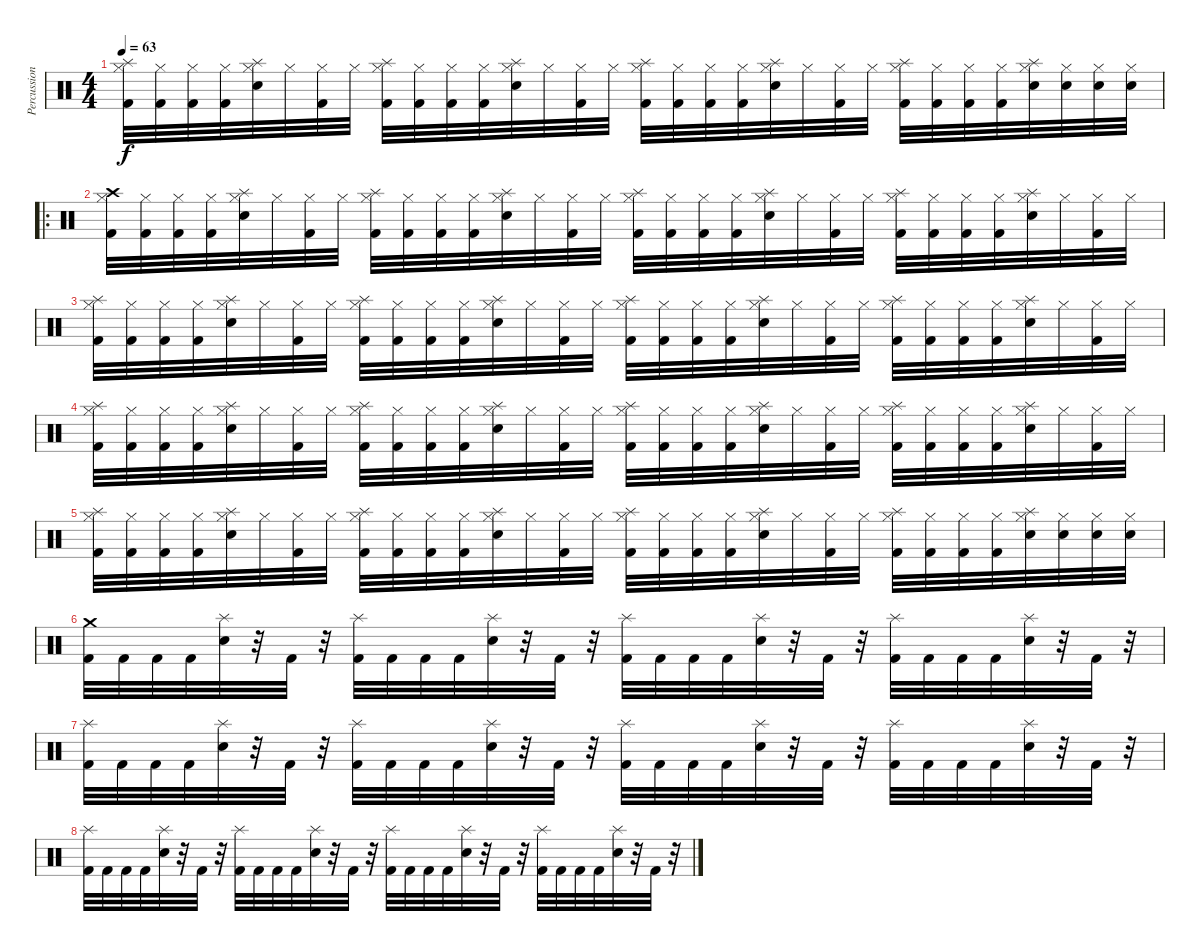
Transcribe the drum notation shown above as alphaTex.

\track ("Percussion" "Percussion") {instrument percussion}
\staff {score}
\articulation defaults
\ts (4 4)
\tempo 63
\clef neutral
\ks c
("Splash (hit)" "Hi-Hat (closed)" "Kick (hit) 2").32{dy f} ("Hi-Hat (closed)" "Kick (hit) 2").32 ("Hi-Hat (closed)" "Kick (hit) 2").32 ("Hi-Hat (closed)" "Kick (hit) 2").32 ("Splash (hit)" "Hi-Hat (closed)" "Electric Snare (hit)").32 "Hi-Hat (closed)".32 ("Hi-Hat (closed)" "Kick (hit) 2").32 "Hi-Hat (closed)".32 ("Splash (hit)" "Hi-Hat (closed)" "Kick (hit) 2").32 ("Hi-Hat (closed)" "Kick (hit) 2").32 ("Hi-Hat (closed)" "Kick (hit) 2").32 ("Hi-Hat (closed)" "Kick (hit) 2").32 ("Splash (hit)" "Hi-Hat (closed)" "Electric Snare (hit)").32 "Hi-Hat (closed)".32 ("Hi-Hat (closed)" "Kick (hit) 2").32 "Hi-Hat (closed)".32 ("Splash (hit)" "Hi-Hat (closed)" "Kick (hit) 2").32 ("Hi-Hat (closed)" "Kick (hit) 2").32 ("Hi-Hat (closed)" "Kick (hit) 2").32 ("Hi-Hat (closed)" "Kick (hit) 2").32 ("Splash (hit)" "Hi-Hat (closed)" "Electric Snare (hit)").32 "Hi-Hat (closed)".32 ("Hi-Hat (closed)" "Kick (hit) 2").32 "Hi-Hat (closed)".32 ("Splash (hit)" "Hi-Hat (closed)" "Kick (hit) 2").32 ("Hi-Hat (closed)" "Kick (hit) 2").32 ("Hi-Hat (closed)" "Kick (hit) 2").32 ("Hi-Hat (closed)" "Kick (hit) 2").32 ("Splash (hit)" "Hi-Hat (closed)" "Electric Snare (hit)").32 ("Hi-Hat (closed)" "Electric Snare (hit)").32 ("Hi-Hat (closed)" "Electric Snare (hit)").32 ("Hi-Hat (closed)" "Electric Snare (hit)").32 |
\ro
("Crash high (hit)" "Hi-Hat (closed)" "Kick (hit) 2").32 ("Hi-Hat (closed)" "Kick (hit) 2").32 ("Hi-Hat (closed)" "Kick (hit) 2").32 ("Hi-Hat (closed)" "Kick (hit) 2").32 ("Splash (hit)" "Hi-Hat (closed)" "Electric Snare (hit)").32 "Hi-Hat (closed)".32 ("Hi-Hat (closed)" "Kick (hit) 2").32 "Hi-Hat (closed)".32 ("Splash (hit)" "Hi-Hat (closed)" "Kick (hit) 2").32 ("Hi-Hat (closed)" "Kick (hit) 2").32 ("Hi-Hat (closed)" "Kick (hit) 2").32 ("Hi-Hat (closed)" "Kick (hit) 2").32 ("Splash (hit)" "Hi-Hat (closed)" "Electric Snare (hit)").32 "Hi-Hat (closed)".32 ("Hi-Hat (closed)" "Kick (hit) 2").32 "Hi-Hat (closed)".32 ("Splash (hit)" "Hi-Hat (closed)" "Kick (hit) 2").32 ("Hi-Hat (closed)" "Kick (hit) 2").32 ("Hi-Hat (closed)" "Kick (hit) 2").32 ("Hi-Hat (closed)" "Kick (hit) 2").32 ("Splash (hit)" "Hi-Hat (closed)" "Electric Snare (hit)").32 "Hi-Hat (closed)".32 ("Hi-Hat (closed)" "Kick (hit) 2").32 "Hi-Hat (closed)".32 ("Splash (hit)" "Hi-Hat (closed)" "Kick (hit) 2").32 ("Hi-Hat (closed)" "Kick (hit) 2").32 ("Hi-Hat (closed)" "Kick (hit) 2").32 ("Hi-Hat (closed)" "Kick (hit) 2").32 ("Splash (hit)" "Hi-Hat (closed)" "Electric Snare (hit)").32 "Hi-Hat (closed)".32 ("Hi-Hat (closed)" "Kick (hit) 2").32 "Hi-Hat (closed)".32 |
("Splash (hit)" "Hi-Hat (closed)" "Kick (hit) 2").32 ("Hi-Hat (closed)" "Kick (hit) 2").32 ("Hi-Hat (closed)" "Kick (hit) 2").32 ("Hi-Hat (closed)" "Kick (hit) 2").32 ("Splash (hit)" "Hi-Hat (closed)" "Electric Snare (hit)").32 "Hi-Hat (closed)".32 ("Hi-Hat (closed)" "Kick (hit) 2").32 "Hi-Hat (closed)".32 ("Splash (hit)" "Hi-Hat (closed)" "Kick (hit) 2").32 ("Hi-Hat (closed)" "Kick (hit) 2").32 ("Hi-Hat (closed)" "Kick (hit) 2").32 ("Hi-Hat (closed)" "Kick (hit) 2").32 ("Splash (hit)" "Hi-Hat (closed)" "Electric Snare (hit)").32 "Hi-Hat (closed)".32 ("Hi-Hat (closed)" "Kick (hit) 2").32 "Hi-Hat (closed)".32 ("Splash (hit)" "Hi-Hat (closed)" "Kick (hit) 2").32 ("Hi-Hat (closed)" "Kick (hit) 2").32 ("Hi-Hat (closed)" "Kick (hit) 2").32 ("Hi-Hat (closed)" "Kick (hit) 2").32 ("Splash (hit)" "Hi-Hat (closed)" "Electric Snare (hit)").32 "Hi-Hat (closed)".32 ("Hi-Hat (closed)" "Kick (hit) 2").32 "Hi-Hat (closed)".32 ("Splash (hit)" "Hi-Hat (closed)" "Kick (hit) 2").32 ("Hi-Hat (closed)" "Kick (hit) 2").32 ("Hi-Hat (closed)" "Kick (hit) 2").32 ("Hi-Hat (closed)" "Kick (hit) 2").32 ("Splash (hit)" "Hi-Hat (closed)" "Electric Snare (hit)").32 "Hi-Hat (closed)".32 ("Hi-Hat (closed)" "Kick (hit) 2").32 "Hi-Hat (closed)".32 |
("Splash (hit)" "Hi-Hat (closed)" "Kick (hit) 2").32 ("Hi-Hat (closed)" "Kick (hit) 2").32 ("Hi-Hat (closed)" "Kick (hit) 2").32 ("Hi-Hat (closed)" "Kick (hit) 2").32 ("Splash (hit)" "Hi-Hat (closed)" "Electric Snare (hit)").32 "Hi-Hat (closed)".32 ("Hi-Hat (closed)" "Kick (hit) 2").32 "Hi-Hat (closed)".32 ("Splash (hit)" "Hi-Hat (closed)" "Kick (hit) 2").32 ("Hi-Hat (closed)" "Kick (hit) 2").32 ("Hi-Hat (closed)" "Kick (hit) 2").32 ("Hi-Hat (closed)" "Kick (hit) 2").32 ("Splash (hit)" "Hi-Hat (closed)" "Electric Snare (hit)").32 "Hi-Hat (closed)".32 ("Hi-Hat (closed)" "Kick (hit) 2").32 "Hi-Hat (closed)".32 ("Splash (hit)" "Hi-Hat (closed)" "Kick (hit) 2").32 ("Hi-Hat (closed)" "Kick (hit) 2").32 ("Hi-Hat (closed)" "Kick (hit) 2").32 ("Hi-Hat (closed)" "Kick (hit) 2").32 ("Splash (hit)" "Hi-Hat (closed)" "Electric Snare (hit)").32 "Hi-Hat (closed)".32 ("Hi-Hat (closed)" "Kick (hit) 2").32 "Hi-Hat (closed)".32 ("Splash (hit)" "Hi-Hat (closed)" "Kick (hit) 2").32 ("Hi-Hat (closed)" "Kick (hit) 2").32 ("Hi-Hat (closed)" "Kick (hit) 2").32 ("Hi-Hat (closed)" "Kick (hit) 2").32 ("Splash (hit)" "Hi-Hat (closed)" "Electric Snare (hit)").32 "Hi-Hat (closed)".32 ("Hi-Hat (closed)" "Kick (hit) 2").32 "Hi-Hat (closed)".32 |
("Splash (hit)" "Hi-Hat (closed)" "Kick (hit) 2").32 ("Hi-Hat (closed)" "Kick (hit) 2").32 ("Hi-Hat (closed)" "Kick (hit) 2").32 ("Hi-Hat (closed)" "Kick (hit) 2").32 ("Splash (hit)" "Hi-Hat (closed)" "Electric Snare (hit)").32 "Hi-Hat (closed)".32 ("Hi-Hat (closed)" "Kick (hit) 2").32 "Hi-Hat (closed)".32 ("Splash (hit)" "Hi-Hat (closed)" "Kick (hit) 2").32 ("Hi-Hat (closed)" "Kick (hit) 2").32 ("Hi-Hat (closed)" "Kick (hit) 2").32 ("Hi-Hat (closed)" "Kick (hit) 2").32 ("Splash (hit)" "Hi-Hat (closed)" "Electric Snare (hit)").32 "Hi-Hat (closed)".32 ("Hi-Hat (closed)" "Kick (hit) 2").32 "Hi-Hat (closed)".32 ("Splash (hit)" "Hi-Hat (closed)" "Kick (hit) 2").32 ("Hi-Hat (closed)" "Kick (hit) 2").32 ("Hi-Hat (closed)" "Kick (hit) 2").32 ("Hi-Hat (closed)" "Kick (hit) 2").32 ("Splash (hit)" "Hi-Hat (closed)" "Electric Snare (hit)").32 "Hi-Hat (closed)".32 ("Hi-Hat (closed)" "Kick (hit) 2").32 "Hi-Hat (closed)".32 ("Splash (hit)" "Hi-Hat (closed)" "Kick (hit) 2").32 ("Hi-Hat (closed)" "Kick (hit) 2").32 ("Hi-Hat (closed)" "Kick (hit) 2").32 ("Hi-Hat (closed)" "Kick (hit) 2").32 ("Splash (hit)" "Hi-Hat (closed)" "Electric Snare (hit)").32 ("Hi-Hat (closed)" "Electric Snare (hit)").32 ("Hi-Hat (closed)" "Electric Snare (hit)").32 ("Hi-Hat (closed)" "Electric Snare (hit)").32 |
("Crash medium (hit)" "Kick (hit) 2").32 "Kick (hit) 2".32 "Kick (hit) 2".32 "Kick (hit) 2".32 ("Splash (hit)" "Electric Snare (hit)").32 r.32 "Kick (hit) 2".32 r.32 ("Splash (hit)" "Kick (hit) 2").32 "Kick (hit) 2".32 "Kick (hit) 2".32 "Kick (hit) 2".32 ("Splash (hit)" "Electric Snare (hit)").32 r.32 "Kick (hit) 2".32 r.32 ("Splash (hit)" "Kick (hit) 2").32 "Kick (hit) 2".32 "Kick (hit) 2".32 "Kick (hit) 2".32 ("Splash (hit)" "Electric Snare (hit)").32 r.32 "Kick (hit) 2".32 r.32 ("Splash (hit)" "Kick (hit) 2").32 "Kick (hit) 2".32 "Kick (hit) 2".32 "Kick (hit) 2".32 ("Splash (hit)" "Electric Snare (hit)").32 r.32 "Kick (hit) 2".32 r.32 |
("Splash (hit)" "Kick (hit) 2").32 "Kick (hit) 2".32 "Kick (hit) 2".32 "Kick (hit) 2".32 ("Splash (hit)" "Electric Snare (hit)").32 r.32 "Kick (hit) 2".32 r.32 ("Splash (hit)" "Kick (hit) 2").32 "Kick (hit) 2".32 "Kick (hit) 2".32 "Kick (hit) 2".32 ("Splash (hit)" "Electric Snare (hit)").32 r.32 "Kick (hit) 2".32 r.32 ("Splash (hit)" "Kick (hit) 2").32 "Kick (hit) 2".32 "Kick (hit) 2".32 "Kick (hit) 2".32 ("Splash (hit)" "Electric Snare (hit)").32 r.32 "Kick (hit) 2".32 r.32 ("Splash (hit)" "Kick (hit) 2").32 "Kick (hit) 2".32 "Kick (hit) 2".32 "Kick (hit) 2".32 ("Splash (hit)" "Electric Snare (hit)").32 r.32 "Kick (hit) 2".32 r.32 |
("Splash (hit)" "Kick (hit) 2").32 "Kick (hit) 2".32 "Kick (hit) 2".32 "Kick (hit) 2".32 ("Splash (hit)" "Electric Snare (hit)").32 r.32 "Kick (hit) 2".32 r.32 ("Splash (hit)" "Kick (hit) 2").32 "Kick (hit) 2".32 "Kick (hit) 2".32 "Kick (hit) 2".32 ("Splash (hit)" "Electric Snare (hit)").32 r.32 "Kick (hit) 2".32 r.32 ("Splash (hit)" "Kick (hit) 2").32 "Kick (hit) 2".32 "Kick (hit) 2".32 "Kick (hit) 2".32 ("Splash (hit)" "Electric Snare (hit)").32 r.32 "Kick (hit) 2".32 r.32 ("Splash (hit)" "Kick (hit) 2").32 "Kick (hit) 2".32 "Kick (hit) 2".32 "Kick (hit) 2".32 ("Splash (hit)" "Electric Snare (hit)").32 r.32 "Kick (hit) 2".32 r.32
